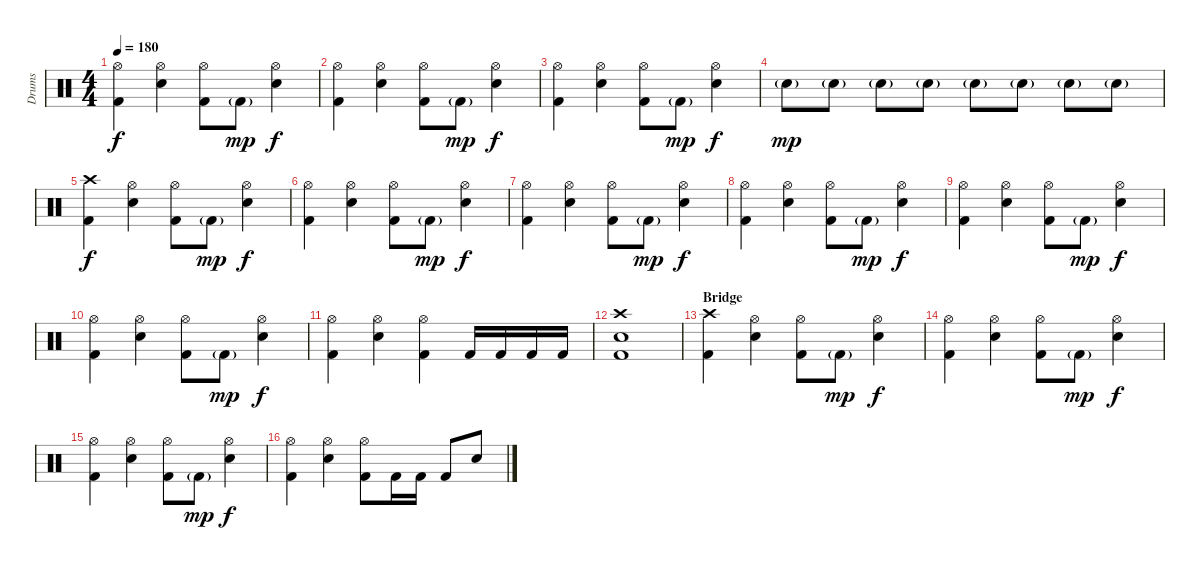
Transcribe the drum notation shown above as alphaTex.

\track ("Drums" "Drums") {instrument percussion}
\staff {score}
\articulation defaults
\ts (4 4)
\tempo 180
\clef neutral
\ks c
("Hi-Hat (open)" "Kick (hit) 2").4{dy f} ("Hi-Hat (open)" "Electric Snare (hit)").4 ("Hi-Hat (open)" "Kick (hit) 2").8 "Kick (hit) 2"{g}.8{dy mp} ("Hi-Hat (open)" "Electric Snare (hit)").4{dy f} |
("Hi-Hat (open)" "Kick (hit) 2").4 ("Hi-Hat (open)" "Electric Snare (hit)").4 ("Hi-Hat (open)" "Kick (hit) 2").8 "Kick (hit) 2"{g}.8{dy mp} ("Hi-Hat (open)" "Electric Snare (hit)").4{dy f} |
("Hi-Hat (open)" "Kick (hit) 2").4 ("Hi-Hat (open)" "Electric Snare (hit)").4 ("Hi-Hat (open)" "Kick (hit) 2").8 "Kick (hit) 2"{g}.8{dy mp} ("Hi-Hat (open)" "Electric Snare (hit)").4{dy f} |
"Electric Snare (hit)"{g}.8{dy mp} "Electric Snare (hit)"{g}.8 "Electric Snare (hit)"{g}.8 "Electric Snare (hit)"{g}.8 "Electric Snare (hit)"{g}.8 "Electric Snare (hit)"{g}.8 "Electric Snare (hit)"{g}.8 "Electric Snare (hit)"{g}.8 |
("Crash high (hit)" "Kick (hit) 2").4{dy f} ("Hi-Hat (open)" "Electric Snare (hit)").4 ("Hi-Hat (open)" "Kick (hit) 2").8 "Kick (hit) 2"{g}.8{dy mp} ("Hi-Hat (open)" "Electric Snare (hit)").4{dy f} |
("Hi-Hat (open)" "Kick (hit) 2").4 ("Hi-Hat (open)" "Electric Snare (hit)").4 ("Hi-Hat (open)" "Kick (hit) 2").8 "Kick (hit) 2"{g}.8{dy mp} ("Hi-Hat (open)" "Electric Snare (hit)").4{dy f} |
("Hi-Hat (open)" "Kick (hit) 2").4 ("Hi-Hat (open)" "Electric Snare (hit)").4 ("Hi-Hat (open)" "Kick (hit) 2").8 "Kick (hit) 2"{g}.8{dy mp} ("Hi-Hat (open)" "Electric Snare (hit)").4{dy f} |
("Hi-Hat (open)" "Kick (hit) 2").4 ("Hi-Hat (open)" "Electric Snare (hit)").4 ("Hi-Hat (open)" "Kick (hit) 2").8 "Kick (hit) 2"{g}.8{dy mp} ("Hi-Hat (open)" "Electric Snare (hit)").4{dy f} |
("Hi-Hat (open)" "Kick (hit) 2").4 ("Hi-Hat (open)" "Electric Snare (hit)").4 ("Hi-Hat (open)" "Kick (hit) 2").8 "Kick (hit) 2"{g}.8{dy mp} ("Hi-Hat (open)" "Electric Snare (hit)").4{dy f} |
("Hi-Hat (open)" "Kick (hit) 2").4 ("Hi-Hat (open)" "Electric Snare (hit)").4 ("Hi-Hat (open)" "Kick (hit) 2").8 "Kick (hit) 2"{g}.8{dy mp} ("Hi-Hat (open)" "Electric Snare (hit)").4{dy f} |
("Hi-Hat (open)" "Kick (hit) 2").4 ("Hi-Hat (open)" "Electric Snare (hit)").4 ("Hi-Hat (open)" "Kick (hit) 2").4 "Kick (hit) 2".16 "Kick (hit) 2".16 "Kick (hit) 2".16 "Kick (hit) 2".16 |
("Crash high (hit)" "Electric Snare (hit)" "Kick (hit) 2").1 |
\section ("" "Bridge")
("Crash high (hit)" "Kick (hit) 2").4 ("Hi-Hat (open)" "Electric Snare (hit)").4 ("Hi-Hat (open)" "Kick (hit) 2").8 "Kick (hit) 2"{g}.8{dy mp} ("Hi-Hat (open)" "Electric Snare (hit)").4{dy f} |
("Hi-Hat (open)" "Kick (hit) 2").4 ("Hi-Hat (open)" "Electric Snare (hit)").4 ("Hi-Hat (open)" "Kick (hit) 2").8 "Kick (hit) 2"{g}.8{dy mp} ("Hi-Hat (open)" "Electric Snare (hit)").4{dy f} |
("Hi-Hat (open)" "Kick (hit) 2").4 ("Hi-Hat (open)" "Electric Snare (hit)").4 ("Hi-Hat (open)" "Kick (hit) 2").8 "Kick (hit) 2"{g}.8{dy mp} ("Hi-Hat (open)" "Electric Snare (hit)").4{dy f} |
("Hi-Hat (open)" "Kick (hit) 2").4 ("Hi-Hat (open)" "Electric Snare (hit)").4 ("Hi-Hat (open)" "Kick (hit) 2").8 "Kick (hit) 2".16 "Kick (hit) 2".16 "Kick (hit) 2".8 "Electric Snare (hit)".8
